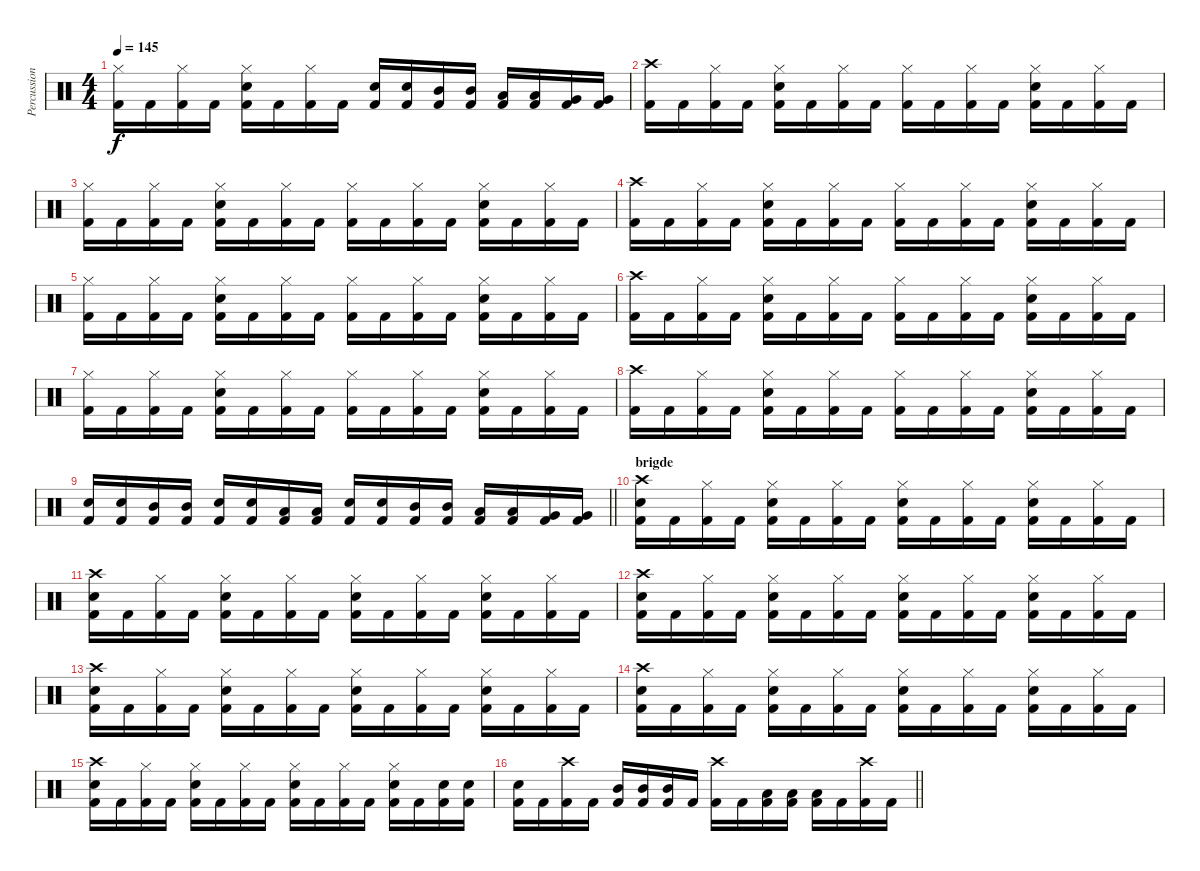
\track ("Percussion" "Percussion") {instrument percussion}
\staff {score}
\articulation defaults
\ts (4 4)
\tempo 145
\clef neutral
\ks c
("Hi-Hat (closed)" "Kick (hit) 2").16{dy f} "Kick (hit) 2".16 ("Hi-Hat (closed)" "Kick (hit) 2").16 "Kick (hit) 2".16 ("Hi-Hat (closed)" "Electric Snare (hit)" "Kick (hit) 2").16 "Kick (hit) 2".16 ("Hi-Hat (closed)" "Kick (hit) 2").16 "Kick (hit) 2".16 ("Electric Snare (hit)" "Kick (hit) 2").16 ("Electric Snare (hit)" "Kick (hit) 2").16 ("Mid Tom (hit)" "Kick (hit) 2").16 ("Mid Tom (hit)" "Kick (hit) 2").16 ("Low Tom (hit)" "Kick (hit) 2").16 ("Low Tom (hit)" "Kick (hit) 2").16 ("Very Low Tom (hit)" "Kick (hit) 2").16 ("Very Low Tom (hit)" "Kick (hit) 2").16 |
("Crash high (hit)" "Kick (hit) 2").16 "Kick (hit) 2".16 ("Hi-Hat (closed)" "Kick (hit) 2").16 "Kick (hit) 2".16 ("Hi-Hat (closed)" "Electric Snare (hit)" "Kick (hit) 2").16 "Kick (hit) 2".16 ("Hi-Hat (closed)" "Kick (hit) 2").16 "Kick (hit) 2".16 ("Hi-Hat (closed)" "Kick (hit) 2").16 "Kick (hit) 2".16 ("Hi-Hat (closed)" "Kick (hit) 2").16 "Kick (hit) 2".16 ("Hi-Hat (closed)" "Electric Snare (hit)" "Kick (hit) 2").16 "Kick (hit) 2".16 ("Hi-Hat (closed)" "Kick (hit) 2").16 "Kick (hit) 2".16 |
("Hi-Hat (closed)" "Kick (hit) 2").16 "Kick (hit) 2".16 ("Hi-Hat (closed)" "Kick (hit) 2").16 "Kick (hit) 2".16 ("Hi-Hat (closed)" "Electric Snare (hit)" "Kick (hit) 2").16 "Kick (hit) 2".16 ("Hi-Hat (closed)" "Kick (hit) 2").16 "Kick (hit) 2".16 ("Hi-Hat (closed)" "Kick (hit) 2").16 "Kick (hit) 2".16 ("Hi-Hat (closed)" "Kick (hit) 2").16 "Kick (hit) 2".16 ("Hi-Hat (closed)" "Electric Snare (hit)" "Kick (hit) 2").16 "Kick (hit) 2".16 ("Hi-Hat (closed)" "Kick (hit) 2").16 "Kick (hit) 2".16 |
("Crash high (hit)" "Kick (hit) 2").16 "Kick (hit) 2".16 ("Hi-Hat (closed)" "Kick (hit) 2").16 "Kick (hit) 2".16 ("Hi-Hat (closed)" "Electric Snare (hit)" "Kick (hit) 2").16 "Kick (hit) 2".16 ("Hi-Hat (closed)" "Kick (hit) 2").16 "Kick (hit) 2".16 ("Hi-Hat (closed)" "Kick (hit) 2").16 "Kick (hit) 2".16 ("Hi-Hat (closed)" "Kick (hit) 2").16 "Kick (hit) 2".16 ("Hi-Hat (closed)" "Electric Snare (hit)" "Kick (hit) 2").16 "Kick (hit) 2".16 ("Hi-Hat (closed)" "Kick (hit) 2").16 "Kick (hit) 2".16 |
("Hi-Hat (closed)" "Kick (hit) 2").16 "Kick (hit) 2".16 ("Hi-Hat (closed)" "Kick (hit) 2").16 "Kick (hit) 2".16 ("Hi-Hat (closed)" "Electric Snare (hit)" "Kick (hit) 2").16 "Kick (hit) 2".16 ("Hi-Hat (closed)" "Kick (hit) 2").16 "Kick (hit) 2".16 ("Hi-Hat (closed)" "Kick (hit) 2").16 "Kick (hit) 2".16 ("Hi-Hat (closed)" "Kick (hit) 2").16 "Kick (hit) 2".16 ("Hi-Hat (closed)" "Electric Snare (hit)" "Kick (hit) 2").16 "Kick (hit) 2".16 ("Hi-Hat (closed)" "Kick (hit) 2").16 "Kick (hit) 2".16 |
("Crash high (hit)" "Kick (hit) 2").16 "Kick (hit) 2".16 ("Hi-Hat (closed)" "Kick (hit) 2").16 "Kick (hit) 2".16 ("Hi-Hat (closed)" "Electric Snare (hit)" "Kick (hit) 2").16 "Kick (hit) 2".16 ("Hi-Hat (closed)" "Kick (hit) 2").16 "Kick (hit) 2".16 ("Hi-Hat (closed)" "Kick (hit) 2").16 "Kick (hit) 2".16 ("Hi-Hat (closed)" "Kick (hit) 2").16 "Kick (hit) 2".16 ("Hi-Hat (closed)" "Electric Snare (hit)" "Kick (hit) 2").16 "Kick (hit) 2".16 ("Hi-Hat (closed)" "Kick (hit) 2").16 "Kick (hit) 2".16 |
("Hi-Hat (closed)" "Kick (hit) 2").16 "Kick (hit) 2".16 ("Hi-Hat (closed)" "Kick (hit) 2").16 "Kick (hit) 2".16 ("Hi-Hat (closed)" "Electric Snare (hit)" "Kick (hit) 2").16 "Kick (hit) 2".16 ("Hi-Hat (closed)" "Kick (hit) 2").16 "Kick (hit) 2".16 ("Hi-Hat (closed)" "Kick (hit) 2").16 "Kick (hit) 2".16 ("Hi-Hat (closed)" "Kick (hit) 2").16 "Kick (hit) 2".16 ("Hi-Hat (closed)" "Electric Snare (hit)" "Kick (hit) 2").16 "Kick (hit) 2".16 ("Hi-Hat (closed)" "Kick (hit) 2").16 "Kick (hit) 2".16 |
("Crash high (hit)" "Kick (hit) 2").16 "Kick (hit) 2".16 ("Hi-Hat (closed)" "Kick (hit) 2").16 "Kick (hit) 2".16 ("Hi-Hat (closed)" "Electric Snare (hit)" "Kick (hit) 2").16 "Kick (hit) 2".16 ("Hi-Hat (closed)" "Kick (hit) 2").16 "Kick (hit) 2".16 ("Hi-Hat (closed)" "Kick (hit) 2").16 "Kick (hit) 2".16 ("Hi-Hat (closed)" "Kick (hit) 2").16 "Kick (hit) 2".16 ("Hi-Hat (closed)" "Electric Snare (hit)" "Kick (hit) 2").16 "Kick (hit) 2".16 ("Hi-Hat (closed)" "Kick (hit) 2").16 "Kick (hit) 2".16 |
\barLineRight lightlight
("Electric Snare (hit)" "Kick (hit) 2").16 ("Electric Snare (hit)" "Kick (hit) 2").16 ("Mid Tom (hit)" "Kick (hit) 2").16 ("Mid Tom (hit)" "Kick (hit) 2").16 ("Electric Snare (hit)" "Kick (hit) 2").16 ("Electric Snare (hit)" "Kick (hit) 2").16 ("Low Tom (hit)" "Kick (hit) 2").16 ("Low Tom (hit)" "Kick (hit) 2").16 ("Electric Snare (hit)" "Kick (hit) 2").16 ("Electric Snare (hit)" "Kick (hit) 2").16 ("Mid Tom (hit)" "Kick (hit) 2").16 ("Mid Tom (hit)" "Kick (hit) 2").16 ("Low Tom (hit)" "Kick (hit) 2").16 ("Low Tom (hit)" "Kick (hit) 2").16 ("Very Low Tom (hit)" "Kick (hit) 2").16 ("Very Low Tom (hit)" "Kick (hit) 2").16 |
\section ("" "brigde")
("Crash high (hit)" "Electric Snare (hit)" "Kick (hit) 2").16 "Kick (hit) 2".16 ("Hi-Hat (closed)" "Kick (hit) 2").16 "Kick (hit) 2".16 ("Hi-Hat (closed)" "Electric Snare (hit)" "Kick (hit) 2").16 "Kick (hit) 2".16 ("Hi-Hat (closed)" "Kick (hit) 2").16 "Kick (hit) 2".16 ("Hi-Hat (closed)" "Electric Snare (hit)" "Kick (hit) 2").16 "Kick (hit) 2".16 ("Hi-Hat (closed)" "Kick (hit) 2").16 "Kick (hit) 2".16 ("Hi-Hat (closed)" "Electric Snare (hit)" "Kick (hit) 2").16 "Kick (hit) 2".16 ("Hi-Hat (closed)" "Kick (hit) 2").16 "Kick (hit) 2".16 |
("Crash high (hit)" "Electric Snare (hit)" "Kick (hit) 2").16 "Kick (hit) 2".16 ("Hi-Hat (closed)" "Kick (hit) 2").16 "Kick (hit) 2".16 ("Hi-Hat (closed)" "Electric Snare (hit)" "Kick (hit) 2").16 "Kick (hit) 2".16 ("Hi-Hat (closed)" "Kick (hit) 2").16 "Kick (hit) 2".16 ("Hi-Hat (closed)" "Electric Snare (hit)" "Kick (hit) 2").16 "Kick (hit) 2".16 ("Hi-Hat (closed)" "Kick (hit) 2").16 "Kick (hit) 2".16 ("Hi-Hat (closed)" "Electric Snare (hit)" "Kick (hit) 2").16 "Kick (hit) 2".16 ("Hi-Hat (closed)" "Kick (hit) 2").16 "Kick (hit) 2".16 |
("Crash high (hit)" "Electric Snare (hit)" "Kick (hit) 2").16 "Kick (hit) 2".16 ("Hi-Hat (closed)" "Kick (hit) 2").16 "Kick (hit) 2".16 ("Hi-Hat (closed)" "Electric Snare (hit)" "Kick (hit) 2").16 "Kick (hit) 2".16 ("Hi-Hat (closed)" "Kick (hit) 2").16 "Kick (hit) 2".16 ("Hi-Hat (closed)" "Electric Snare (hit)" "Kick (hit) 2").16 "Kick (hit) 2".16 ("Hi-Hat (closed)" "Kick (hit) 2").16 "Kick (hit) 2".16 ("Hi-Hat (closed)" "Electric Snare (hit)" "Kick (hit) 2").16 "Kick (hit) 2".16 ("Hi-Hat (closed)" "Kick (hit) 2").16 "Kick (hit) 2".16 |
("Crash high (hit)" "Electric Snare (hit)" "Kick (hit) 2").16 "Kick (hit) 2".16 ("Hi-Hat (closed)" "Kick (hit) 2").16 "Kick (hit) 2".16 ("Hi-Hat (closed)" "Electric Snare (hit)" "Kick (hit) 2").16 "Kick (hit) 2".16 ("Hi-Hat (closed)" "Kick (hit) 2").16 "Kick (hit) 2".16 ("Hi-Hat (closed)" "Electric Snare (hit)" "Kick (hit) 2").16 "Kick (hit) 2".16 ("Hi-Hat (closed)" "Kick (hit) 2").16 "Kick (hit) 2".16 ("Hi-Hat (closed)" "Electric Snare (hit)" "Kick (hit) 2").16 "Kick (hit) 2".16 ("Hi-Hat (closed)" "Kick (hit) 2").16 "Kick (hit) 2".16 |
("Crash high (hit)" "Electric Snare (hit)" "Kick (hit) 2").16 "Kick (hit) 2".16 ("Hi-Hat (closed)" "Kick (hit) 2").16 "Kick (hit) 2".16 ("Hi-Hat (closed)" "Electric Snare (hit)" "Kick (hit) 2").16 "Kick (hit) 2".16 ("Hi-Hat (closed)" "Kick (hit) 2").16 "Kick (hit) 2".16 ("Hi-Hat (closed)" "Electric Snare (hit)" "Kick (hit) 2").16 "Kick (hit) 2".16 ("Hi-Hat (closed)" "Kick (hit) 2").16 "Kick (hit) 2".16 ("Hi-Hat (closed)" "Electric Snare (hit)" "Kick (hit) 2").16 "Kick (hit) 2".16 ("Hi-Hat (closed)" "Kick (hit) 2").16 "Kick (hit) 2".16 |
("Crash high (hit)" "Electric Snare (hit)" "Kick (hit) 2").16 "Kick (hit) 2".16 ("Hi-Hat (closed)" "Kick (hit) 2").16 "Kick (hit) 2".16 ("Hi-Hat (closed)" "Electric Snare (hit)" "Kick (hit) 2").16 "Kick (hit) 2".16 ("Hi-Hat (closed)" "Kick (hit) 2").16 "Kick (hit) 2".16 ("Hi-Hat (closed)" "Electric Snare (hit)" "Kick (hit) 2").16 "Kick (hit) 2".16 ("Hi-Hat (closed)" "Kick (hit) 2").16 "Kick (hit) 2".16 ("Hi-Hat (closed)" "Electric Snare (hit)" "Kick (hit) 2").16 "Kick (hit) 2".16 ("Electric Snare (hit)" "Kick (hit) 2").16 ("Electric Snare (hit)" "Kick (hit) 2").16 |
\barLineRight lightlight
("Electric Snare (hit)" "Kick (hit) 2").16 "Kick (hit) 2".16 ("Crash high (hit)" "Kick (hit) 2").16 "Kick (hit) 2".16 ("Mid Tom (hit)" "Kick (hit) 2").16 ("Mid Tom (hit)" "Kick (hit) 2").16 ("Mid Tom (hit)" "Kick (hit) 2").16 "Kick (hit) 2".16 ("Crash high (hit)" "Kick (hit) 2").16 "Kick (hit) 2".16 ("Low Tom (hit)" "Kick (hit) 2").16 ("Low Tom (hit)" "Kick (hit) 2").16 ("Low Tom (hit)" "Kick (hit) 2").16 "Kick (hit) 2".16 ("Crash high (hit)" "Kick (hit) 2").16 "Kick (hit) 2".16
